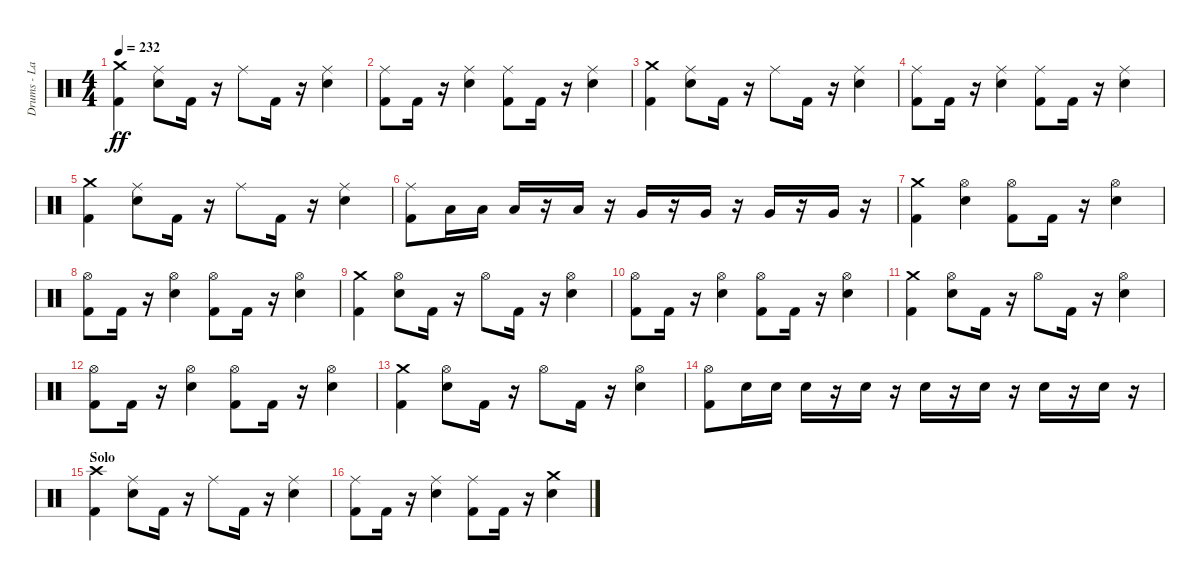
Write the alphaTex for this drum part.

\track ("Drums - Larzon" "Drums - La") {instrument percussion}
\staff {score}
\articulation defaults
\ts (4 4)
\tempo 232
\clef neutral
\ks c
("Kick (hit) 2" "Crash medium (hit)").4{dy ff} ("Electric Snare (hit)" "Ride (middle)").8 "Kick (hit) 2".16 r.16 "Ride (middle)".8 "Kick (hit) 2".16 r.16 ("Electric Snare (hit)" "Ride (middle)").4 |
("Kick (hit) 2" "Ride (middle)").8 "Kick (hit) 2".16 r.16 ("Electric Snare (hit)" "Ride (middle)").4 ("Kick (hit) 2" "Ride (middle)").8 "Kick (hit) 2".16 r.16 ("Electric Snare (hit)" "Ride (middle)").4 |
("Kick (hit) 2" "Crash medium (hit)").4 ("Electric Snare (hit)" "Ride (middle)").8 "Kick (hit) 2".16 r.16 "Ride (middle)".8 "Kick (hit) 2".16 r.16 ("Electric Snare (hit)" "Ride (middle)").4 |
("Kick (hit) 2" "Ride (middle)").8 "Kick (hit) 2".16 r.16 ("Electric Snare (hit)" "Ride (middle)").4 ("Kick (hit) 2" "Ride (middle)").8 "Kick (hit) 2".16 r.16 ("Electric Snare (hit)" "Ride (middle)").4 |
("Kick (hit) 2" "Crash medium (hit)").4 ("Electric Snare (hit)" "Ride (middle)").8 "Kick (hit) 2".16 r.16 "Ride (middle)".8 "Kick (hit) 2".16 r.16 ("Electric Snare (hit)" "Ride (middle)").4 |
("Kick (hit) 2" "Ride (middle)").8 "Low Tom (hit)".16 "Low Tom (hit)".16 "Low Tom (hit)".16 r.16 "Low Tom (hit)".16 r.16 "Very Low Tom (hit)".16 r.16 "Very Low Tom (hit)".16 r.16 "Very Low Tom (hit)".16 r.16 "Very Low Tom (hit)".16 r.16 |
("Kick (hit) 2" "Crash medium (hit)").4 ("Electric Snare (hit)" "Hi-Hat (open)").4 ("Kick (hit) 2" "Hi-Hat (open)").8 "Kick (hit) 2".16 r.16 ("Electric Snare (hit)" "Hi-Hat (open)").4 |
("Kick (hit) 2" "Hi-Hat (open)").8 "Kick (hit) 2".16 r.16 ("Electric Snare (hit)" "Hi-Hat (open)").4 ("Kick (hit) 2" "Hi-Hat (open)").8 "Kick (hit) 2".16 r.16 ("Electric Snare (hit)" "Hi-Hat (open)").4 |
("Kick (hit) 2" "Crash medium (hit)").4 ("Electric Snare (hit)" "Hi-Hat (open)").8 "Kick (hit) 2".16 r.16 "Hi-Hat (open)".8 "Kick (hit) 2".16 r.16 ("Electric Snare (hit)" "Hi-Hat (open)").4 |
("Kick (hit) 2" "Hi-Hat (open)").8 "Kick (hit) 2".16 r.16 ("Electric Snare (hit)" "Hi-Hat (open)").4 ("Kick (hit) 2" "Hi-Hat (open)").8 "Kick (hit) 2".16 r.16 ("Electric Snare (hit)" "Hi-Hat (open)").4 |
("Kick (hit) 2" "Crash medium (hit)").4 ("Electric Snare (hit)" "Hi-Hat (open)").8 "Kick (hit) 2".16 r.16 "Hi-Hat (open)".8 "Kick (hit) 2".16 r.16 ("Electric Snare (hit)" "Hi-Hat (open)").4 |
("Kick (hit) 2" "Hi-Hat (open)").8 "Kick (hit) 2".16 r.16 ("Electric Snare (hit)" "Hi-Hat (open)").4 ("Kick (hit) 2" "Hi-Hat (open)").8 "Kick (hit) 2".16 r.16 ("Electric Snare (hit)" "Hi-Hat (open)").4 |
("Kick (hit) 2" "Crash medium (hit)").4 ("Electric Snare (hit)" "Hi-Hat (open)").8 "Kick (hit) 2".16 r.16 "Hi-Hat (open)".8 "Kick (hit) 2".16 r.16 ("Electric Snare (hit)" "Hi-Hat (open)").4 |
("Kick (hit) 2" "Hi-Hat (open)").8 "Electric Snare (hit)".16 "Electric Snare (hit)".16 "Electric Snare (hit)".16 r.16 "Electric Snare (hit)".16 r.16 "Electric Snare (hit)".16 r.16 "Electric Snare (hit)".16 r.16 "Electric Snare (hit)".16 r.16 "Electric Snare (hit)".16 r.16 |
\section ("" "Solo")
("Crash high (hit)" "Kick (hit) 2").4 ("Ride (middle)" "Electric Snare (hit)").8 "Kick (hit) 2".16 r.16 "Ride (middle)".8 "Kick (hit) 2".16 r.16 ("Ride (middle)" "Electric Snare (hit)").4 |
("Ride (middle)" "Kick (hit) 2").8 "Kick (hit) 2".16 r.16 ("Ride (middle)" "Electric Snare (hit)").4 ("Ride (middle)" "Kick (hit) 2").8 "Kick (hit) 2".16 r.16 ("Crash medium (hit)" "Electric Snare (hit)").4
